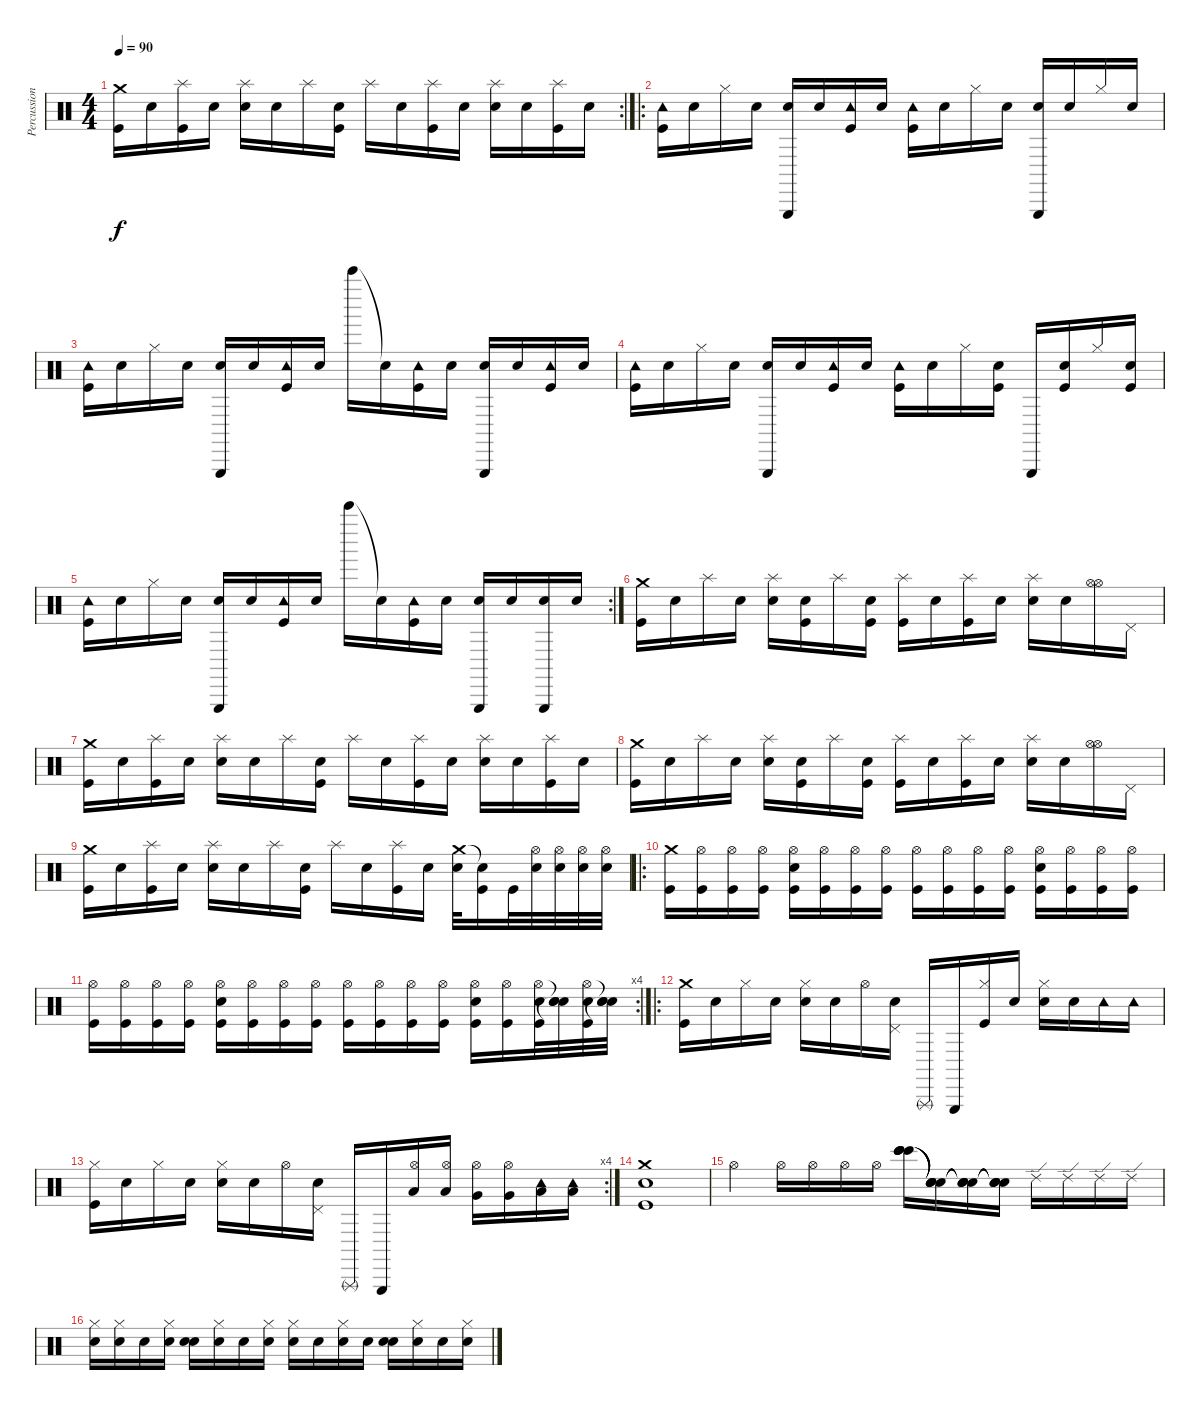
\track ("Percussions" "Percussion") {instrument percussion}
\staff {score}
\articulation defaults
\rc 2
\ts (4 4)
\tempo 90
\clef neutral
\ks c
("Crash medium (hit)" "Kick (hit)").16{dy f} "Snare (hit)".16 ("Splash (hit)" "Kick (hit)").16 "Snare (hit)".16 ("Splash (hit)" "Snare (hit) 2").16 "Snare (hit)".16 "Splash (hit)".16 ("Snare (hit)" "Kick (hit)").16 "Splash (hit)".16 "Snare (hit)".16 ("Splash (hit)" "Kick (hit)").16 "Snare (hit)".16 ("Splash (hit)" "Snare (hit) 2").16 "Snare (hit)".16 ("Splash (hit)" "Kick (hit)").16 "Snare (hit)".16 |
\ro
("Tambourine (hit)" "Kick (hit)").16 "Snare (hit)".16 "Hi-Hat (closed)".16 "Snare (hit)".16 ("Triangle (hit)" "Metronome (bell)").16 "Snare (hit)".16 ("Tambourine (hit)" "Kick (hit)").16 "Snare (hit)".16 ("Tambourine (hit)" "Kick (hit)").16 "Snare (hit)".16 "Hi-Hat (closed)".16 "Snare (hit)".16 ("Triangle (hit)" "Metronome (bell)").16 "Snare (hit)".16 "Hi-Hat (closed)".16 "Snare (hit)".16 |
("Tambourine (hit)" "Kick (hit)").16 "Snare (hit)".16 "Hi-Hat (closed)".16 "Snare (hit)".16 ("Triangle (hit)" "Metronome (bell)").16 "Snare (hit)".16 ("Tambourine (hit)" "Kick (hit)").16 "Snare (hit)".16 "Bell Tree (hit)".16 "Snare (hit)"{t}.16 ("Tambourine (hit)" "Kick (hit)").16 "Snare (hit)".16 ("Triangle (hit)" "Metronome (bell)").16 "Snare (hit)".16 ("Tambourine (hit)" "Kick (hit)").16 "Snare (hit)".16 |
("Tambourine (hit)" "Kick (hit)").16 "Snare (hit)".16 "Hi-Hat (closed)".16 "Snare (hit)".16 ("Triangle (hit)" "Metronome (bell)").16 "Snare (hit)".16 ("Tambourine (hit)" "Kick (hit)").16 "Snare (hit)".16 ("Tambourine (hit)" "Kick (hit)").16 "Snare (hit)".16 "Hi-Hat (closed)".16 ("Snare (hit)" "Kick (hit)").16 "Triangle (hit)".16 ("Snare (hit)" "Kick (hit)").16 "Hi-Hat (closed)".16 ("Snare (hit)" "Kick (hit)").16 |
\rc 2
("Tambourine (hit)" "Kick (hit)").16 "Snare (hit)".16 "Hi-Hat (closed)".16 "Snare (hit)".16 ("Triangle (hit)" "Metronome (bell)").16 "Snare (hit)".16 ("Tambourine (hit)" "Kick (hit)").16 "Snare (hit)".16 "Bell Tree (hit)".16 "Snare (hit)"{t}.16 ("Tambourine (hit)" "Kick (hit)").16 "Snare (hit)".16 ("Triangle (hit)" "Metronome (bell)").16 "Snare (hit)".16 ("Triangle (hit)" "Metronome (bell)").16 "Snare (hit)".16 |
("Crash medium (hit)" "Kick (hit)").16 "Snare (hit)".16 "Splash (hit)".16 "Snare (hit)".16 ("Splash (hit)" "Snare (hit) 2").16 ("Snare (hit)" "Kick (hit)").16 "Splash (hit)".16 ("Snare (hit)" "Kick (hit)").16 ("Splash (hit)" "Kick (hit)").16 "Snare (hit)".16 ("Splash (hit)" "Kick (hit)").16 "Snare (hit)".16 ("Splash (hit)" "Snare (hit) 2").16 "Snare (hit)".16 ("Hi-Hat (open)" "Hi-Hat (open)").16 "Pedal Hi-Hat (hit)".16 |
("Crash medium (hit)" "Kick (hit)").16 "Snare (hit)".16 ("Splash (hit)" "Kick (hit)").16 "Snare (hit)".16 ("Splash (hit)" "Snare (hit) 2").16 "Snare (hit)".16 "Splash (hit)".16 ("Snare (hit)" "Kick (hit)").16 "Splash (hit)".16 "Snare (hit)".16 ("Splash (hit)" "Kick (hit)").16 "Snare (hit)".16 ("Splash (hit)" "Snare (hit) 2").16 "Snare (hit)".16 ("Splash (hit)" "Kick (hit)").16 "Snare (hit)".16 |
("Crash medium (hit)" "Kick (hit)").16 "Snare (hit)".16 "Splash (hit)".16 "Snare (hit)".16 ("Splash (hit)" "Snare (hit) 2").16 ("Snare (hit)" "Kick (hit)").16 "Splash (hit)".16 ("Snare (hit)" "Kick (hit)").16 ("Splash (hit)" "Kick (hit)").16 "Snare (hit)".16 ("Splash (hit)" "Kick (hit)").16 "Snare (hit)".16 ("Splash (hit)" "Snare (hit) 2").16 "Snare (hit)".16 ("Hi-Hat (open)" "Hi-Hat (open)").16 "Pedal Hi-Hat (hit)".16 |
("Crash medium (hit)" "Kick (hit)").16 "Snare (hit)".16 ("Splash (hit)" "Kick (hit)").16 "Snare (hit)".16 ("Splash (hit)" "Snare (hit) 2").16 "Snare (hit)".16 "Splash (hit)".16 ("Snare (hit)" "Kick (hit)").16 "Splash (hit)".16 "Snare (hit)".16 ("Splash (hit)" "Kick (hit)").16 "Snare (hit)".16 ("Crash medium (hit)" "Snare (hit) 2").32 ("Snare (hit)"{t} "Kick (hit)").16 "Kick (hit)".32 ("Hi-Hat (open)" "Snare (hit) 2").32 ("Hi-Hat (open)" "Snare (hit) 2").32 ("Hi-Hat (open)" "Snare (hit) 2").32 ("Hi-Hat (open)" "Snare (hit) 2").32 |
\ro
("Crash medium (hit)" "Kick (hit)").16 ("Hi-Hat (open)" "Kick (hit)").16 ("Hi-Hat (open)" "Kick (hit)").16 ("Hi-Hat (open)" "Kick (hit)").16 ("Hi-Hat (open)" "Snare (hit) 2" "Kick (hit)").16 ("Hi-Hat (open)" "Kick (hit)").16 ("Hi-Hat (open)" "Kick (hit)").16 ("Hi-Hat (open)" "Kick (hit)").16 ("Hi-Hat (open)" "Kick (hit)").16 ("Hi-Hat (open)" "Kick (hit)").16 ("Hi-Hat (open)" "Kick (hit)").16 ("Hi-Hat (open)" "Kick (hit)").16 ("Hi-Hat (open)" "Snare (hit) 2" "Kick (hit)").16 ("Hi-Hat (open)" "Kick (hit)").16 ("Hi-Hat (open)" "Kick (hit)").16 ("Hi-Hat (open)" "Kick (hit)").16 |
\rc 4
("Hi-Hat (open)" "Kick (hit)").16 ("Hi-Hat (open)" "Kick (hit)").16 ("Hi-Hat (open)" "Kick (hit)").16 ("Hi-Hat (open)" "Kick (hit)").16 ("Hi-Hat (open)" "Snare (hit) 2" "Kick (hit)").16 ("Hi-Hat (open)" "Kick (hit)").16 ("Hi-Hat (open)" "Kick (hit)").16 ("Hi-Hat (open)" "Kick (hit)").16 ("Hi-Hat (open)" "Kick (hit)").16 ("Hi-Hat (open)" "Kick (hit)").16 ("Hi-Hat (open)" "Kick (hit)").16 ("Hi-Hat (open)" "Kick (hit)").16 ("Hi-Hat (open)" "Snare (hit) 2" "Kick (hit)").16 ("Hi-Hat (open)" "Kick (hit)").16 ("Hi-Hat (open)" "Snare (hit) 2" "Kick (hit)").32 ("Snare (hit)"{t} "Snare (hit) 2" "Snare (hit)"{t}).32 ("Hi-Hat (open)" "Snare (hit) 2" "Kick (hit)").32 ("Snare (hit)"{t} "Snare (hit) 2" "Snare (hit)"{t}).32 |
\ro
("Crash medium (hit)" "Kick (hit)").16 "Snare (hit)".16 "Hi-Hat (closed)".16 "Snare (hit)".16 ("Hi-Hat (closed)" "Snare (hit) 2").16 "Snare (hit)".16 "Hi-Hat (open)".16 ("Pedal Hi-Hat (hit)" "Snare (hit) 2").16 "Triangle (rnute)".16 "Triangle (hit)".16 ("Hi-Hat (closed)" "Kick (hit)").16 "Snare (hit)".16 ("Hi-Hat (closed)" "Snare (hit) 2").16 "Snare (hit)".16 "Tambourine (hit)".16 "Tambourine (hit)".16 |
\rc 4
("Hi-Hat (closed)" "Kick (hit)").16 "Snare (hit)".16 "Hi-Hat (closed)".16 "Snare (hit)".16 ("Hi-Hat (closed)" "Snare (hit) 2").16 "Snare (hit)".16 "Hi-Hat (open)".16 ("Pedal Hi-Hat (hit)" "Snare (hit) 2").16 "Triangle (rnute)".16 "Triangle (hit)".16 ("Hi-Hat (open)" "Low Tom (hit)").16 ("Hi-Hat (open)" "Low Tom (hit)").16 ("Hi-Hat (open)" "Very Low Tom (hit)").16 ("Hi-Hat (open)" "Very Low Tom (hit)").16 ("Tambourine (hit)" "Low Floor Tom (hit)").16 ("Tambourine (hit)" "Low Floor Tom (hit)").16 |
("Crash medium (hit)" "Snare (hit) 2" "Kick (hit)").1 |
"Hi-Hat (open)".4 "Hi-Hat (open)".16 "Hi-Hat (open)".16 "Hi-Hat (open)".16 "Hi-Hat (open)".16 ("Bongo High (hit)" "Bongo High (hit)" "Bongo High (hit)" "Bongo High (hit)").16 ("Snare (hit)"{t} "Snare (hit)"{t} "Snare (hit)"{t} "Snare (hit)"{t}).16 ("Snare (hit)"{t} "Snare (hit)"{t} "Snare (hit)"{t} "Snare (hit)"{t}).16 ("Snare (hit)"{t} "Snare (hit)"{t} "Snare (hit)"{t} "Snare (hit)"{t}).16 "Ride (edge) 2".16 "Ride (edge) 2".16 "Ride (edge) 2".16 "Ride (edge) 2".16 |
("Snare (hit)" "Hi-Hat (closed)").16 ("Snare (hit)" "Hi-Hat (closed)").16 "Snare (hit)".16 ("Snare (hit)" "Hi-Hat (closed)").16 ("Snare (hit)" "Snare (hit)").16 ("Snare (hit)" "Hi-Hat (closed)").16 "Snare (hit)".16 ("Snare (hit)" "Hi-Hat (closed)").16 ("Snare (hit)" "Hi-Hat (closed)").16 "Snare (hit)".16 ("Snare (hit)" "Hi-Hat (closed)").16 "Snare (hit)".16 ("Snare (hit)" "Snare (hit)").16 ("Snare (hit)" "Hi-Hat (closed)").16 "Snare (hit)".16 ("Snare (hit)" "Hi-Hat (closed)").16
